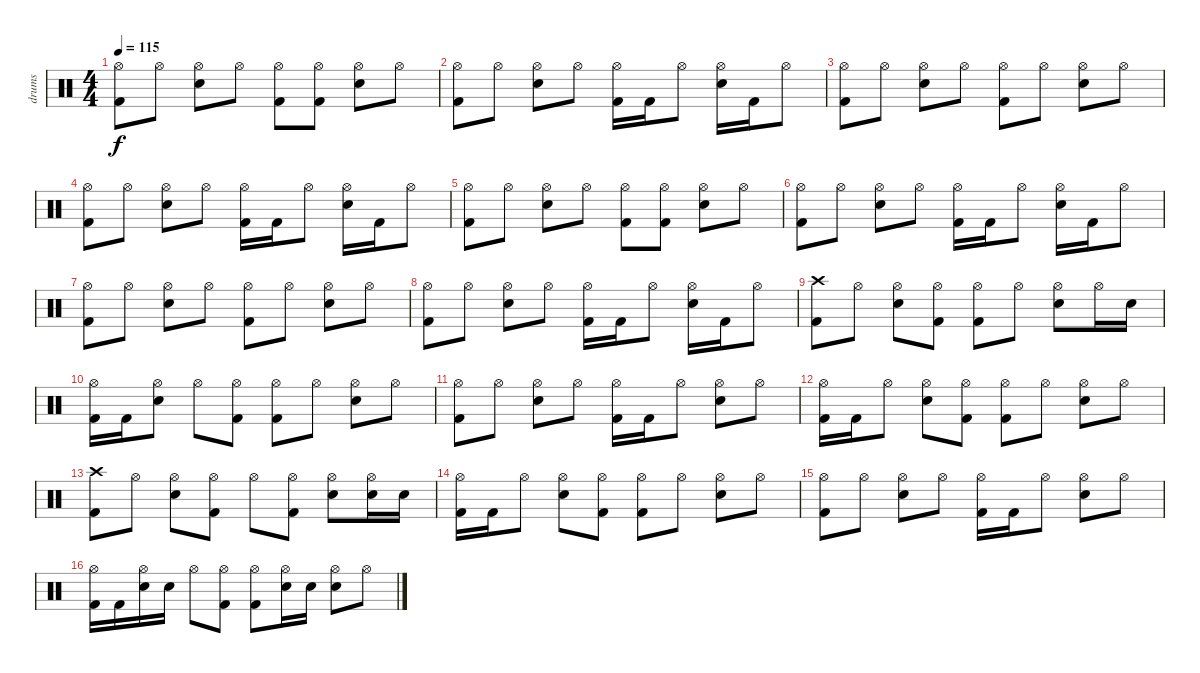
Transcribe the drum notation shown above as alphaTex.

\track ("drums" "drums") {instrument percussion}
\staff {score}
\articulation defaults
\ts (4 4)
\tempo 115
\clef neutral
\ks c
("Hi-Hat (open)" "Kick (hit) 2").8{dy f} "Hi-Hat (open)".8 ("Hi-Hat (open)" "Electric Snare (hit)").8 "Hi-Hat (open)".8 ("Hi-Hat (open)" "Kick (hit) 2").8 ("Hi-Hat (open)" "Kick (hit) 2").8 ("Hi-Hat (open)" "Electric Snare (hit)").8 "Hi-Hat (open)".8 |
("Hi-Hat (open)" "Kick (hit) 2").8 "Hi-Hat (open)".8 ("Hi-Hat (open)" "Electric Snare (hit)").8 "Hi-Hat (open)".8 ("Hi-Hat (open)" "Kick (hit) 2").16 "Kick (hit) 2".16 "Hi-Hat (open)".8 ("Hi-Hat (open)" "Electric Snare (hit)").16 "Kick (hit) 2".16 "Hi-Hat (open)".8 |
("Hi-Hat (open)" "Kick (hit) 2").8 "Hi-Hat (open)".8 ("Hi-Hat (open)" "Electric Snare (hit)").8 "Hi-Hat (open)".8 ("Hi-Hat (open)" "Kick (hit) 2").8 "Hi-Hat (open)".8 ("Hi-Hat (open)" "Electric Snare (hit)").8 "Hi-Hat (open)".8 |
("Hi-Hat (open)" "Kick (hit) 2").8 "Hi-Hat (open)".8 ("Hi-Hat (open)" "Electric Snare (hit)").8 "Hi-Hat (open)".8 ("Hi-Hat (open)" "Kick (hit) 2").16 "Kick (hit) 2".16 "Hi-Hat (open)".8 ("Hi-Hat (open)" "Electric Snare (hit)").16 "Kick (hit) 2".16 "Hi-Hat (open)".8 |
("Hi-Hat (open)" "Kick (hit) 2").8 "Hi-Hat (open)".8 ("Hi-Hat (open)" "Electric Snare (hit)").8 "Hi-Hat (open)".8 ("Hi-Hat (open)" "Kick (hit) 2").8 ("Hi-Hat (open)" "Kick (hit) 2").8 ("Hi-Hat (open)" "Electric Snare (hit)").8 "Hi-Hat (open)".8 |
("Hi-Hat (open)" "Kick (hit) 2").8 "Hi-Hat (open)".8 ("Hi-Hat (open)" "Electric Snare (hit)").8 "Hi-Hat (open)".8 ("Hi-Hat (open)" "Kick (hit) 2").16 "Kick (hit) 2".16 "Hi-Hat (open)".8 ("Hi-Hat (open)" "Electric Snare (hit)").16 "Kick (hit) 2".16 "Hi-Hat (open)".8 |
("Hi-Hat (open)" "Kick (hit) 2").8 "Hi-Hat (open)".8 ("Hi-Hat (open)" "Electric Snare (hit)").8 "Hi-Hat (open)".8 ("Hi-Hat (open)" "Kick (hit) 2").8 "Hi-Hat (open)".8 ("Hi-Hat (open)" "Electric Snare (hit)").8 "Hi-Hat (open)".8 |
("Hi-Hat (open)" "Kick (hit) 2").8 "Hi-Hat (open)".8 ("Hi-Hat (open)" "Electric Snare (hit)").8 "Hi-Hat (open)".8 ("Hi-Hat (open)" "Kick (hit) 2").16 "Kick (hit) 2".16 "Hi-Hat (open)".8 ("Hi-Hat (open)" "Electric Snare (hit)").16 "Kick (hit) 2".16 "Hi-Hat (open)".8 |
("Crash high (hit)" "Kick (hit) 2").8 "Hi-Hat (open)".8 ("Hi-Hat (open)" "Electric Snare (hit)").8 ("Hi-Hat (open)" "Kick (hit) 2").8 ("Hi-Hat (open)" "Kick (hit) 2").8 "Hi-Hat (open)".8 ("Hi-Hat (open)" "Electric Snare (hit)").8 "Hi-Hat (open)".16 "Electric Snare (hit)".16 |
("Hi-Hat (open)" "Kick (hit) 2").16 "Kick (hit) 2".16 ("Hi-Hat (open)" "Electric Snare (hit)").8 "Hi-Hat (open)".8 ("Hi-Hat (open)" "Kick (hit) 2").8 ("Hi-Hat (open)" "Kick (hit) 2").8 "Hi-Hat (open)".8 ("Hi-Hat (open)" "Electric Snare (hit)").8 "Hi-Hat (open)".8 |
("Hi-Hat (open)" "Kick (hit) 2").8 "Hi-Hat (open)".8 ("Hi-Hat (open)" "Electric Snare (hit)").8 "Hi-Hat (open)".8 ("Hi-Hat (open)" "Kick (hit) 2").16 "Kick (hit) 2".16 "Hi-Hat (open)".8 ("Hi-Hat (open)" "Electric Snare (hit)").8 "Hi-Hat (open)".8 |
("Hi-Hat (open)" "Kick (hit) 2").16 "Kick (hit) 2".16 "Hi-Hat (open)".8 ("Hi-Hat (open)" "Electric Snare (hit)").8 ("Hi-Hat (open)" "Kick (hit) 2").8 ("Hi-Hat (open)" "Kick (hit) 2").8 "Hi-Hat (open)".8 ("Hi-Hat (open)" "Electric Snare (hit)").8 "Hi-Hat (open)".8 |
("Crash high (hit)" "Kick (hit) 2").8 "Hi-Hat (open)".8 ("Hi-Hat (open)" "Electric Snare (hit)").8 ("Hi-Hat (open)" "Kick (hit) 2").8 "Hi-Hat (open)".8 ("Hi-Hat (open)" "Kick (hit) 2").8 ("Hi-Hat (open)" "Electric Snare (hit)").8 ("Hi-Hat (open)" "Electric Snare (hit)").16 "Electric Snare (hit)".16 |
("Hi-Hat (open)" "Kick (hit) 2").16 "Kick (hit) 2".16 "Hi-Hat (open)".8 ("Hi-Hat (open)" "Electric Snare (hit)").8 ("Hi-Hat (open)" "Kick (hit) 2").8 ("Hi-Hat (open)" "Kick (hit) 2").8 "Hi-Hat (open)".8 ("Hi-Hat (open)" "Electric Snare (hit)").8 "Hi-Hat (open)".8 |
("Hi-Hat (open)" "Kick (hit) 2").8 "Hi-Hat (open)".8 ("Hi-Hat (open)" "Electric Snare (hit)").8 "Hi-Hat (open)".8 ("Hi-Hat (open)" "Kick (hit) 2").16 "Kick (hit) 2".16 "Hi-Hat (open)".8 ("Hi-Hat (open)" "Electric Snare (hit)").8 "Hi-Hat (open)".8 |
("Hi-Hat (open)" "Kick (hit) 2").16 "Kick (hit) 2".16 ("Hi-Hat (open)" "Electric Snare (hit)").16 "Electric Snare (hit)".16 "Hi-Hat (open)".8 ("Hi-Hat (open)" "Kick (hit) 2").8 ("Hi-Hat (open)" "Kick (hit) 2").8 ("Hi-Hat (open)" "Electric Snare (hit)").16 "Electric Snare (hit)".16 ("Hi-Hat (open)" "Electric Snare (hit)").8 "Hi-Hat (open)".8
